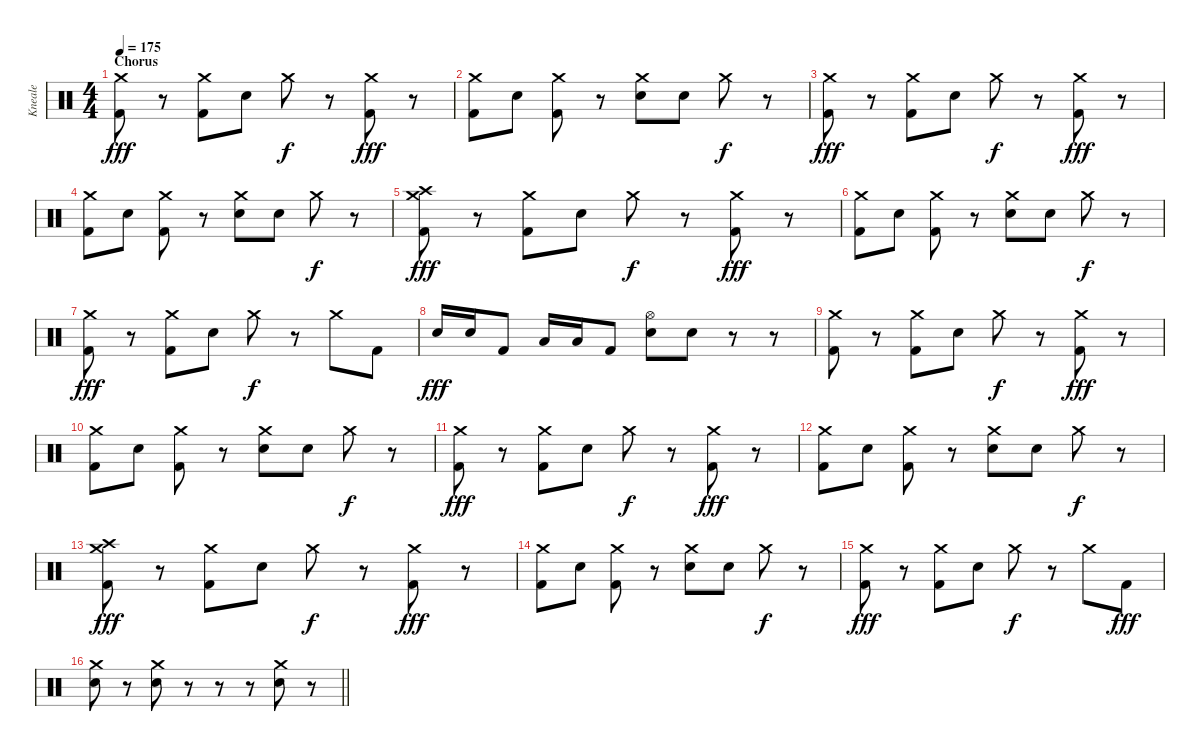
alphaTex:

\track ("Kneale" "Kneale") {instrument percussion}
\staff {score}
\articulation defaults
\ts (4 4)
\section ("" "Chorus")
\tempo 175
\clef neutral
\ks c
("Crash medium (hit)" "Kick (hit) 2").8{dy fff} r.8 ("Crash medium (hit)" "Kick (hit) 2").8 "Electric Snare (hit)".8 "Crash medium (hit)".8{dy f} r.8 ("Crash medium (hit)" "Kick (hit) 2").8{dy fff} r.8 |
("Crash medium (hit)" "Kick (hit) 2").8 "Electric Snare (hit)".8 ("Crash medium (hit)" "Kick (hit) 2").8 r.8 ("Crash medium (hit)" "Electric Snare (hit)").8 "Electric Snare (hit)".8 "Crash medium (hit)".8{dy f} r.8 |
("Crash medium (hit)" "Kick (hit) 2").8{dy fff} r.8 ("Crash medium (hit)" "Kick (hit) 2").8 "Electric Snare (hit)".8 "Crash medium (hit)".8{dy f} r.8 ("Crash medium (hit)" "Kick (hit) 2").8{dy fff} r.8 |
("Crash medium (hit)" "Kick (hit) 2").8 "Electric Snare (hit)".8 ("Crash medium (hit)" "Kick (hit) 2").8 r.8 ("Crash medium (hit)" "Electric Snare (hit)").8 "Electric Snare (hit)".8 "Crash medium (hit)".8{dy f} r.8 |
("Crash medium (hit)" "Crash high (hit)" "Kick (hit) 2").8{dy fff} r.8 ("Crash medium (hit)" "Kick (hit) 2").8 "Electric Snare (hit)".8 "Crash medium (hit)".8{dy f} r.8 ("Crash medium (hit)" "Kick (hit) 2").8{dy fff} r.8 |
("Crash medium (hit)" "Kick (hit) 2").8 "Electric Snare (hit)".8 ("Crash medium (hit)" "Kick (hit) 2").8 r.8 ("Crash medium (hit)" "Electric Snare (hit)").8 "Electric Snare (hit)".8 "Crash medium (hit)".8{dy f} r.8 |
("Crash medium (hit)" "Kick (hit) 2").8{dy fff} r.8 ("Crash medium (hit)" "Kick (hit) 2").8 "Electric Snare (hit)".8 "Crash medium (hit)".8{dy f} r.8 "Crash medium (hit)".8 "Kick (hit) 2".8 |
"Electric Snare (hit)".16{dy fff} "Electric Snare (hit)".16 "Kick (hit) 2".8 "Low Tom (hit)".16 "Low Tom (hit)".16 "Kick (hit) 2".8 ("Hi-Hat (open)" "Electric Snare (hit)").8 "Electric Snare (hit)".8 r.8 r.8 |
("Crash medium (hit)" "Kick (hit) 2").8 r.8 ("Crash medium (hit)" "Kick (hit) 2").8 "Electric Snare (hit)".8 "Crash medium (hit)".8{dy f} r.8 ("Crash medium (hit)" "Kick (hit) 2").8{dy fff} r.8 |
("Crash medium (hit)" "Kick (hit) 2").8 "Electric Snare (hit)".8 ("Crash medium (hit)" "Kick (hit) 2").8 r.8 ("Crash medium (hit)" "Electric Snare (hit)").8 "Electric Snare (hit)".8 "Crash medium (hit)".8{dy f} r.8 |
("Crash medium (hit)" "Kick (hit) 2").8{dy fff} r.8 ("Crash medium (hit)" "Kick (hit) 2").8 "Electric Snare (hit)".8 "Crash medium (hit)".8{dy f} r.8 ("Crash medium (hit)" "Kick (hit) 2").8{dy fff} r.8 |
("Crash medium (hit)" "Kick (hit) 2").8 "Electric Snare (hit)".8 ("Crash medium (hit)" "Kick (hit) 2").8 r.8 ("Crash medium (hit)" "Electric Snare (hit)").8 "Electric Snare (hit)".8 "Crash medium (hit)".8{dy f} r.8 |
("Crash medium (hit)" "Crash high (hit)" "Kick (hit) 2").8{dy fff} r.8 ("Crash medium (hit)" "Kick (hit) 2").8 "Electric Snare (hit)".8 "Crash medium (hit)".8{dy f} r.8 ("Crash medium (hit)" "Kick (hit) 2").8{dy fff} r.8 |
("Crash medium (hit)" "Kick (hit) 2").8 "Electric Snare (hit)".8 ("Crash medium (hit)" "Kick (hit) 2").8 r.8 ("Crash medium (hit)" "Electric Snare (hit)").8 "Electric Snare (hit)".8 "Crash medium (hit)".8{dy f} r.8 |
("Crash medium (hit)" "Kick (hit) 2").8{dy fff} r.8 ("Crash medium (hit)" "Kick (hit) 2").8 "Electric Snare (hit)".8 "Crash medium (hit)".8{dy f} r.8 "Crash medium (hit)".8 "Kick (hit) 2".8{dy fff} |
\barLineRight lightlight
("Crash medium (hit)" "Electric Snare (hit)").8 r.8 ("Crash medium (hit)" "Electric Snare (hit)").8 r.8 r.8 r.8 ("Crash medium (hit)" "Electric Snare (hit)").8 r.8
